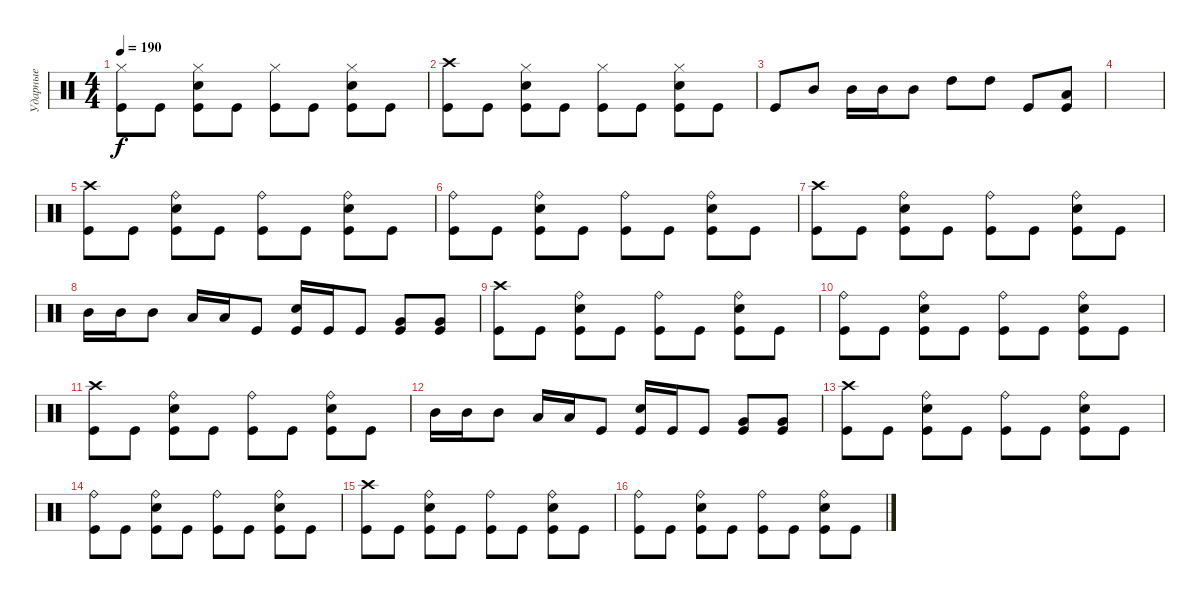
\track ("Ударные" "Ударные") {instrument percussion}
\staff {score}
\articulation defaults
\ts (4 4)
\tempo 190
\clef neutral
\ks c
("Hi-Hat (closed)" "Kick (hit)").8{dy f} "Kick (hit)".8 ("Hi-Hat (closed)" "Electric Snare (hit)" "Kick (hit)").8 "Kick (hit)".8 ("Hi-Hat (closed)" "Kick (hit)").8 "Kick (hit)".8 ("Hi-Hat (closed)" "Electric Snare (hit)" "Kick (hit)").8 "Kick (hit)".8 |
("Crash high (hit)" "Kick (hit)").8 "Kick (hit)".8 ("Hi-Hat (closed)" "Electric Snare (hit)" "Kick (hit)").8 "Kick (hit)".8 ("Hi-Hat (closed)" "Kick (hit)").8 "Kick (hit)".8 ("Hi-Hat (closed)" "Electric Snare (hit)" "Kick (hit)").8 "Kick (hit)".8 |
"Kick (hit)".8 "Mid Tom (hit)".8 "Mid Tom (hit)".16 "Mid Tom (hit)".16 "Mid Tom (hit)".8 "High Tom (hit)".8 "High Tom (hit)".8 "Kick (hit)".8 ("Low Tom (hit)" "Kick (hit)").8 |
|
("Crash high (hit)" "Kick (hit)").8 "Kick (hit)".8 ("Ride (bell)" "Electric Snare (hit)" "Kick (hit)").8 "Kick (hit)".8 ("Ride (bell)" "Kick (hit)").8 "Kick (hit)".8 ("Ride (bell)" "Electric Snare (hit)" "Kick (hit)").8 "Kick (hit)".8 |
("Ride (bell)" "Kick (hit)").8 "Kick (hit)".8 ("Ride (bell)" "Electric Snare (hit)" "Kick (hit)").8 "Kick (hit)".8 ("Ride (bell)" "Kick (hit)").8 "Kick (hit)".8 ("Ride (bell)" "Electric Snare (hit)" "Kick (hit)").8 "Kick (hit)".8 |
("Crash high (hit)" "Kick (hit)").8 "Kick (hit)".8 ("Ride (bell)" "Electric Snare (hit)" "Kick (hit)").8 "Kick (hit)".8 ("Ride (bell)" "Kick (hit)").8 "Kick (hit)".8 ("Ride (bell)" "Electric Snare (hit)" "Kick (hit)").8 "Kick (hit)".8 |
"Mid Tom (hit)".16 "Mid Tom (hit)".16 "Mid Tom (hit)".8 "Low Tom (hit)".16 "Low Tom (hit)".16 "Kick (hit)".8 ("Electric Snare (hit)" "Kick (hit)").16 "Kick (hit)".16 "Kick (hit)".8 ("Very Low Tom (hit)" "Kick (hit)").8 ("Very Low Tom (hit)" "Kick (hit)").8 |
("Crash high (hit)" "Kick (hit)").8 "Kick (hit)".8 ("Ride (bell)" "Electric Snare (hit)" "Kick (hit)").8 "Kick (hit)".8 ("Ride (bell)" "Kick (hit)").8 "Kick (hit)".8 ("Ride (bell)" "Electric Snare (hit)" "Kick (hit)").8 "Kick (hit)".8 |
("Ride (bell)" "Kick (hit)").8 "Kick (hit)".8 ("Ride (bell)" "Electric Snare (hit)" "Kick (hit)").8 "Kick (hit)".8 ("Ride (bell)" "Kick (hit)").8 "Kick (hit)".8 ("Ride (bell)" "Electric Snare (hit)" "Kick (hit)").8 "Kick (hit)".8 |
("Crash high (hit)" "Kick (hit)").8 "Kick (hit)".8 ("Ride (bell)" "Electric Snare (hit)" "Kick (hit)").8 "Kick (hit)".8 ("Ride (bell)" "Kick (hit)").8 "Kick (hit)".8 ("Ride (bell)" "Electric Snare (hit)" "Kick (hit)").8 "Kick (hit)".8 |
"Mid Tom (hit)".16 "Mid Tom (hit)".16 "Mid Tom (hit)".8 "Low Tom (hit)".16 "Low Tom (hit)".16 "Kick (hit)".8 ("Electric Snare (hit)" "Kick (hit)").16 "Kick (hit)".16 "Kick (hit)".8 ("Very Low Tom (hit)" "Kick (hit)").8 ("Very Low Tom (hit)" "Kick (hit)").8 |
("Crash high (hit)" "Kick (hit)").8 "Kick (hit)".8 ("Ride (bell)" "Electric Snare (hit)" "Kick (hit)").8 "Kick (hit)".8 ("Ride (bell)" "Kick (hit)").8 "Kick (hit)".8 ("Ride (bell)" "Electric Snare (hit)" "Kick (hit)").8 "Kick (hit)".8 |
("Ride (bell)" "Kick (hit)").8 "Kick (hit)".8 ("Ride (bell)" "Electric Snare (hit)" "Kick (hit)").8 "Kick (hit)".8 ("Ride (bell)" "Kick (hit)").8 "Kick (hit)".8 ("Ride (bell)" "Electric Snare (hit)" "Kick (hit)").8 "Kick (hit)".8 |
("Crash high (hit)" "Kick (hit)").8 "Kick (hit)".8 ("Ride (bell)" "Electric Snare (hit)" "Kick (hit)").8 "Kick (hit)".8 ("Ride (bell)" "Kick (hit)").8 "Kick (hit)".8 ("Ride (bell)" "Electric Snare (hit)" "Kick (hit)").8 "Kick (hit)".8 |
("Ride (bell)" "Kick (hit)").8 "Kick (hit)".8 ("Ride (bell)" "Electric Snare (hit)" "Kick (hit)").8 "Kick (hit)".8 ("Ride (bell)" "Kick (hit)").8 "Kick (hit)".8 ("Ride (bell)" "Electric Snare (hit)" "Kick (hit)").8 "Kick (hit)".8
